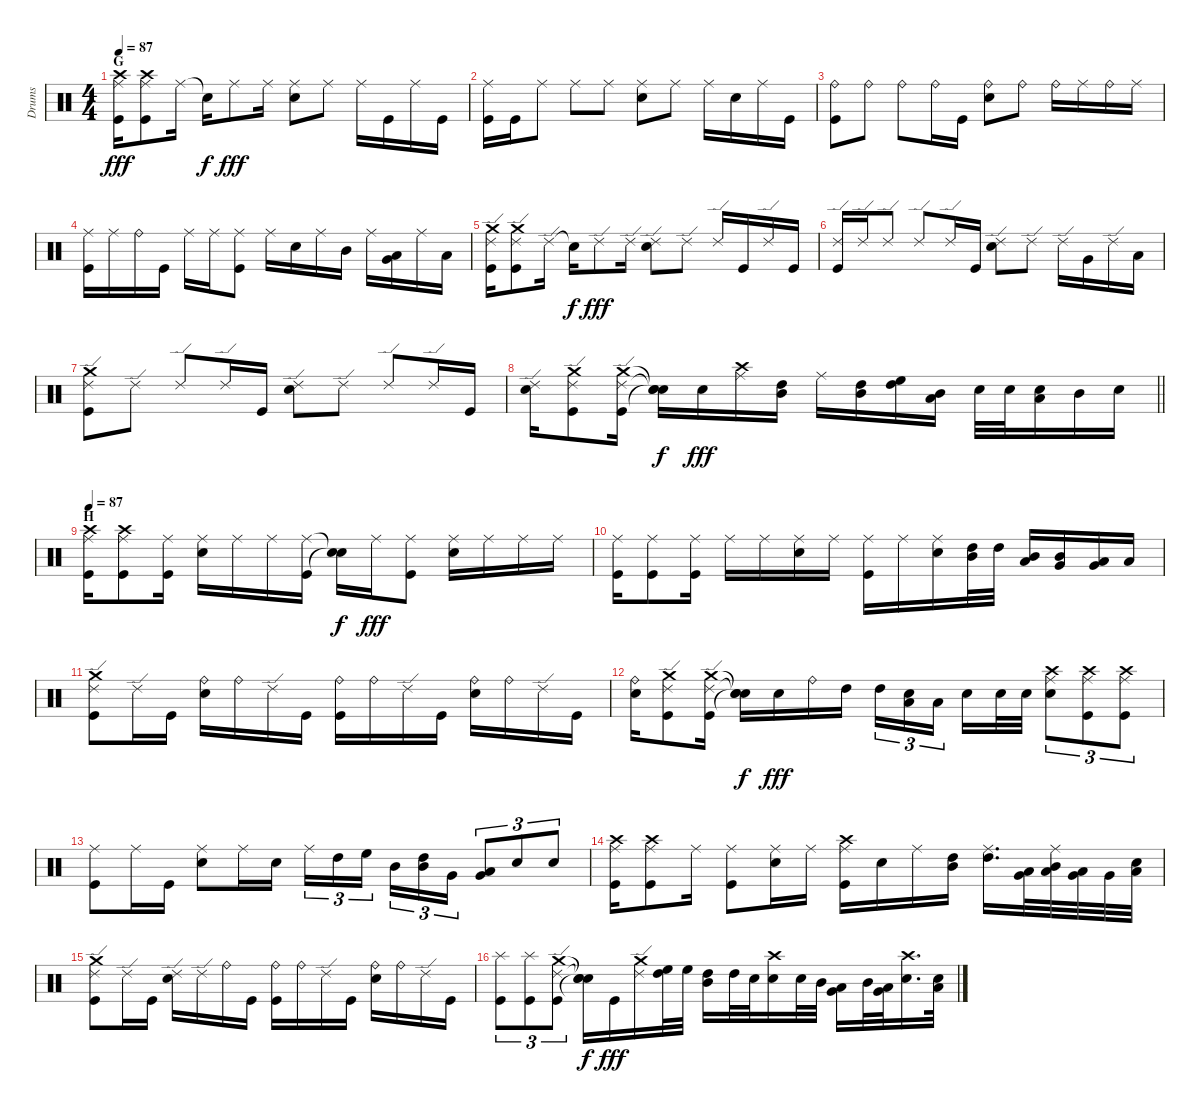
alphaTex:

\track ("Drums" "Drums") {instrument percussion}
\staff {score}
\articulation defaults
\ts (4 4)
\section ("" "G")
\tempo 87
\clef neutral
\ks c
("Ride (middle)" "Crash high (hit)" "Kick (hit)").16{dy fff} ("Ride (middle)" "Crash high (hit)" "Kick (hit)").8 "Ride (middle)".16 "Snare (hit)"{t}.16{dy f} "Ride (middle)".8{dy fff} "Ride (middle)".16 ("Ride (middle)" "Snare (hit) 2").8 "Ride (middle)".8 "Ride (middle)".16 "Kick (hit)".16 "Ride (middle)".16 "Kick (hit)".16 |
("Ride (middle)" "Kick (hit)").16 "Kick (hit)".16 "Ride (middle)".8 "Ride (middle)".8 "Ride (middle)".8 ("Ride (middle)" "Snare (hit) 2").8 "Ride (middle)".8 "Ride (middle)".16 "Snare (hit) 2".16 "Ride (middle)".16 "Kick (hit)".16 |
("Ride (bell)" "Kick (hit)").8 "Ride (bell)".8 "Ride (bell)".8 "Ride (bell)".16 "Kick (hit)".16 ("Ride (bell)" "Snare (hit) 2").8 "Ride (bell)".8 "Ride (bell)".16 "Ride (middle)".16 "Ride (bell)".16 "Ride (middle)".16 |
("Ride (middle)" "Kick (hit)").16 "Ride (middle)".16 "Ride (bell)".16 "Kick (hit)".16 "Ride (middle)".16 "Ride (middle)".16 ("Ride (middle)" "Kick (hit)").8 "Ride (middle)".16 "Snare (hit) 2".16 "Ride (middle)".16 "Mid Tom (hit)".16 "Ride (middle)".16 ("Low Tom (hit)" "Very Low Tom (hit)").16 "Ride (middle)".16 "Low Floor Tom (hit)".16 |
("Ride (edge) 2" "Crash medium (hit)" "Kick (hit)").16 ("Ride (edge) 2" "Crash medium (hit)" "Kick (hit)").8 "Ride (edge) 2".16 "Snare (hit)"{t}.16{dy f} "Ride (edge) 2".8{dy fff} "Ride (edge) 2".16 ("Ride (edge) 2" "Snare (hit) 2").8 "Ride (edge) 2".8 "Ride (edge) 2".16 "Kick (hit)".16 "Ride (edge) 2".16 "Kick (hit)".16 |
("Ride (edge) 2" "Kick (hit)").16 "Ride (edge) 2".16 "Ride (edge) 2".8 "Ride (edge) 2".8 "Ride (edge) 2".16 "Kick (hit)".16 ("Ride (edge) 2" "Snare (hit) 2").8 "Ride (edge) 2".8 "Ride (edge) 2".16 "Very Low Tom (hit)".16 "Ride (edge) 2".16 "Low Floor Tom (hit)".16 |
("Ride (edge) 2" "Crash medium (hit)" "Kick (hit)").8 "Ride (edge) 2".8 "Ride (edge) 2".8 "Ride (edge) 2".16 "Kick (hit)".16 ("Ride (edge) 2" "Snare (hit) 2").8 "Ride (edge) 2".8 "Ride (edge) 2".8 "Ride (edge) 2".16 "Kick (hit)".16 |
\barLineRight lightlight
("Ride (edge) 2" "Snare (hit) 2").16 ("Ride (edge) 2" "Crash medium (hit)" "Kick (hit)").8 ("Ride (edge) 2" "Crash medium (hit)" "Kick (hit)").16 ("Snare (hit)"{t} "Snare (hit)"{t} "Snare (hit)"{t}).16{dy f} "Snare (hit) 2".16{dy fff} ("Ride (middle)" "Crash high (hit)").16 ("High Tom (hit)" "Mid Tom (hit)").16 "Ride (middle)".16 ("High Tom (hit)" "Mid Tom (hit)").16 ("High Floor Tom (hit)" "High Tom (hit)").16 ("Mid Tom (hit)" "Low Tom (hit)").16 "Snare (hit) 2".32 "Snare (hit) 2".32 ("Low Floor Tom (hit)" "Snare (hit) 2").16 "Mid Tom (hit)".16 "Snare (hit) 2".16 |
\section ("" "H")
\tempo 87
("Ride (middle)" "Crash high (hit)" "Kick (hit)").16 ("Ride (middle)" "Crash high (hit)" "Kick (hit)").8 ("Ride (middle)" "Kick (hit)").16 ("Ride (middle)" "Snare (hit) 2").16 "Ride (middle)".16 "Ride (middle)".16 ("Ride (middle)" "Kick (hit)").16 ("Snare (hit)"{t} "Snare (hit)"{t}).16{dy f} "Ride (middle)".16{dy fff} ("Ride (middle)" "Kick (hit)").8 ("Ride (middle)" "Snare (hit) 2").16 "Ride (middle)".16 "Ride (middle)".16 "Ride (middle)".16 |
("Ride (middle)" "Kick (hit)").16 ("Ride (middle)" "Kick (hit)").8 ("Ride (middle)" "Kick (hit)").16 "Ride (middle)".16 "Ride (middle)".16 ("Ride (middle)" "Snare (hit) 2").16 "Ride (middle)".16 ("Ride (middle)" "Kick (hit)").16 "Ride (middle)".16 ("Ride (middle)" "Snare (hit) 2").16 ("High Tom (hit)" "Mid Tom (hit)").32 "High Tom (hit)".32 ("Mid Tom (hit)" "Low Tom (hit)").16 ("Mid Tom (hit)" "Very Low Tom (hit)").16 ("Very Low Tom (hit)" "Low Floor Tom (hit)").16 "Low Floor Tom (hit)".16 |
("Ride (edge) 2" "Crash medium (hit)" "Kick (hit)").8 "Ride (edge) 2".16 "Kick (hit)".16 ("Ride (bell)" "Snare (hit) 2").16 "Ride (bell)".16 "Ride (edge) 2".16 "Kick (hit)".16 ("Ride (bell)" "Kick (hit)").16 "Ride (bell)".16 "Ride (edge) 2".16 "Kick (hit)".16 ("Ride (bell)" "Snare (hit) 2").16 "Ride (bell)".16 "Ride (edge) 2".16 "Kick (hit)".16 |
("Ride (bell)" "Snare (hit) 2").16 ("Ride (edge) 2" "Crash medium (hit)" "Kick (hit)").8 ("Ride (edge) 2" "Crash medium (hit)" "Kick (hit)").16 ("Snare (hit)"{t} "Snare (hit)"{t} "Snare (hit)"{t}).16{dy f} "Snare (hit) 2".16{dy fff} "Ride (bell)".16 "High Tom (hit)".16 "High Tom (hit)".16{tu (3 2)} ("Low Floor Tom (hit)" "Snare (hit) 2").16{tu (3 2)} "Low Floor Tom (hit)".16{tu (3 2)} "Snare (hit) 2".16 "Snare (hit) 2".32 "Snare (hit) 2".32 ("Ride (middle)" "Crash high (hit)" "Snare (hit) 2").8{tu (3 2)} ("Ride (middle)" "Crash high (hit)" "Kick (hit)").8{tu (3 2)} ("Ride (middle)" "Crash high (hit)" "Kick (hit)").8{tu (3 2)} |
("Ride (middle)" "Kick (hit)").8 "Ride (middle)".16 "Kick (hit)".16 ("Ride (middle)" "Snare (hit) 2").8 "Ride (middle)".16 "Snare (hit) 2".16 "Ride (middle)".16{tu (3 2)} "High Tom (hit)".16{tu (3 2)} "High Floor Tom (hit)".16{tu (3 2)} "Mid Tom (hit)".16{tu (3 2)} ("High Tom (hit)" "Mid Tom (hit)").16{tu (3 2)} "Very Low Tom (hit)".16{tu (3 2)} ("Very Low Tom (hit)" "Low Floor Tom (hit)").8{tu (3 2)} "Snare (hit) 2".8{tu (3 2)} "Snare (hit) 2".8{tu (3 2)} |
("Ride (middle)" "Crash high (hit)" "Kick (hit)").16 ("Ride (middle)" "Crash high (hit)" "Kick (hit)").8 "Ride (middle)".16 ("Ride (middle)" "Kick (hit)").8 ("Ride (middle)" "Snare (hit) 2").16 "Ride (middle)".16 ("Ride (middle)" "Crash high (hit)" "Kick (hit)").16 "Snare (hit) 2".16 "Ride (middle)".16 ("High Tom (hit)" "Mid Tom (hit)").16 ("Ride (middle)" "High Tom (hit)").16{d} ("Low Tom (hit)" "Very Low Tom (hit)").32 ("Ride (middle)" "Mid Tom (hit)" "Low Tom (hit)").32 ("Very Low Tom (hit)" "Low Floor Tom (hit)").32 "Very Low Tom (hit)".32 ("Low Floor Tom (hit)" "Snare (hit) 2").32 |
("Ride (edge) 2" "Crash medium (hit)" "Kick (hit)").8 "Ride (edge) 2".16 "Kick (hit)".16 ("Ride (edge) 2" "Snare (hit) 2").16 "Ride (edge) 2".16 "Ride (bell)".16 "Kick (hit)".16 ("Ride (bell)" "Kick (hit)").16 "Ride (bell)".16 "Ride (edge) 2".16 "Kick (hit)".16 ("Ride (bell)" "Snare (hit) 2").16 "Ride (bell)".16 "Ride (edge) 2".16 "Kick (hit)".16 |
("Splash (hit)" "Kick (hit)").8{tu (3 2)} ("Splash (hit)" "Kick (hit)").8{tu (3 2)} ("Ride (edge) 2" "Crash medium (hit)" "Kick (hit)").8{tu (3 2)} ("Snare (hit)"{t} "Snare (hit)"{t} "Snare (hit)"{t}).16{dy f} "Kick (hit)".16{dy fff} ("Ride (edge) 2" "Crash medium (hit)").16 ("High Floor Tom (hit)" "High Tom (hit)").32 "High Floor Tom (hit)".32 ("High Tom (hit)" "Mid Tom (hit)").16 "High Tom (hit)".32 "Snare (hit) 2".32 ("Crash high (hit)" "Snare (hit) 2").16 "Snare (hit) 2".32 "Mid Tom (hit)".32 ("Low Tom (hit)" "Very Low Tom (hit)").16 "Mid Tom (hit)".32 ("Very Low Tom (hit)" "Low Floor Tom (hit)").32 ("Crash high (hit)" "Snare (hit) 2").16{d} ("Low Floor Tom (hit)" "Snare (hit) 2").32
